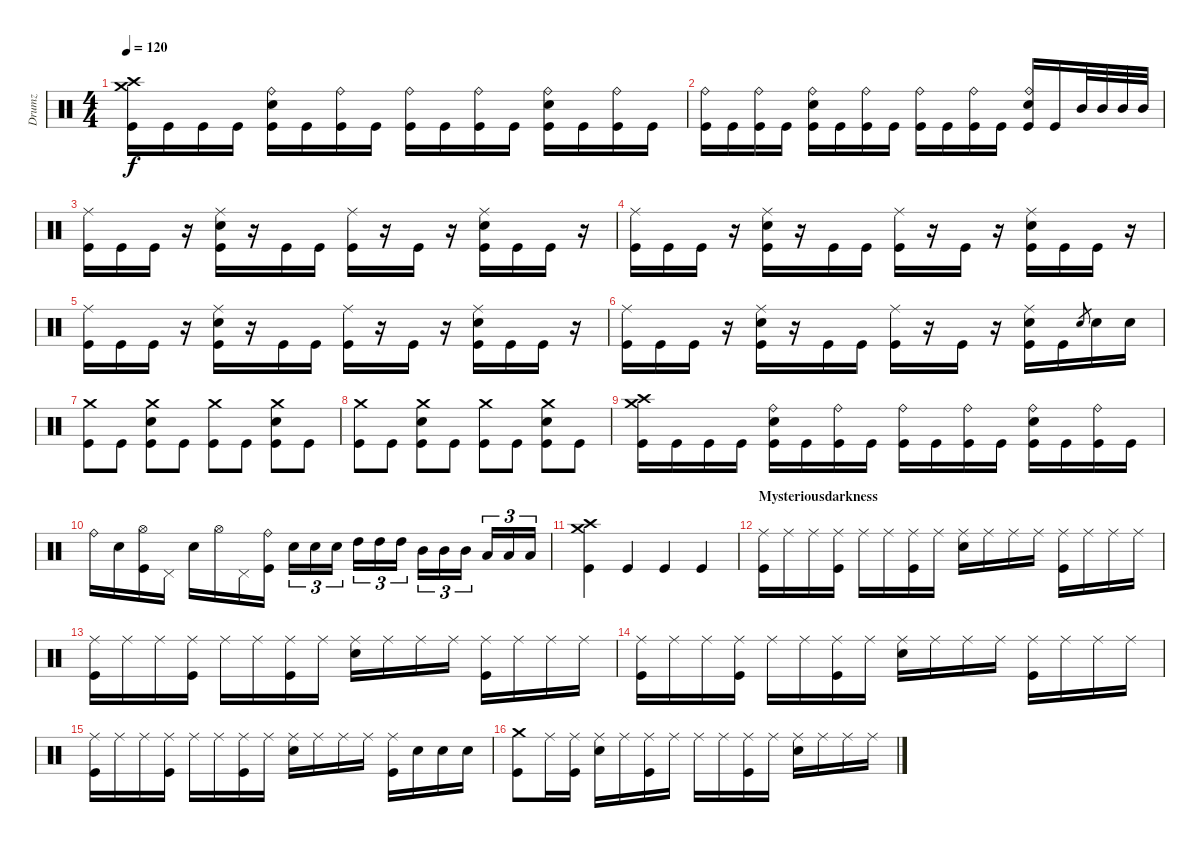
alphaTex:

\track ("Drumz" "Drumz") {instrument percussion}
\staff {score}
\articulation defaults
\ts (4 4)
\tempo 120
\clef neutral
\ks c
("Crash high (hit)" "Crash medium (hit)" "Kick (hit)").16{dy f} "Kick (hit)".16 "Kick (hit)".16 "Kick (hit)".16 ("Ride (bell)" "Electric Snare (hit)" "Kick (hit)").16 "Kick (hit)".16 ("Ride (bell)" "Kick (hit)").16 "Kick (hit)".16 ("Ride (bell)" "Kick (hit)").16 "Kick (hit)".16 ("Ride (bell)" "Kick (hit)").16 "Kick (hit)".16 ("Ride (bell)" "Electric Snare (hit)" "Kick (hit)").16 "Kick (hit)".16 ("Ride (bell)" "Kick (hit)").16 "Kick (hit)".16 |
("Ride (bell)" "Kick (hit)").16 "Kick (hit)".16 ("Ride (bell)" "Kick (hit)").16 "Kick (hit)".16 ("Ride (bell)" "Electric Snare (hit)" "Kick (hit)").16 "Kick (hit)".16 ("Ride (bell)" "Kick (hit)").16 "Kick (hit)".16 ("Ride (bell)" "Kick (hit)").16 "Kick (hit)".16 ("Ride (bell)" "Kick (hit)").16 "Kick (hit)".16 ("Ride (bell)" "Electric Snare (hit)" "Kick (hit)").16 "Kick (hit)".16 "Mid Tom (hit)".32 "Mid Tom (hit)".32 "Mid Tom (hit)".32 "Mid Tom (hit)".32 |
("Ride (middle)" "Kick (hit)").16 "Kick (hit)".16 "Kick (hit)".16 r.16 ("Ride (middle)" "Electric Snare (hit)" "Kick (hit)").16 r.16 "Kick (hit)".16 "Kick (hit)".16 ("Ride (middle)" "Kick (hit)").16 r.16 "Kick (hit)".16 r.16 ("Ride (middle)" "Electric Snare (hit)" "Kick (hit)").16 "Kick (hit)".16 "Kick (hit)".16 r.16 |
("Ride (middle)" "Kick (hit)").16 "Kick (hit)".16 "Kick (hit)".16 r.16 ("Ride (middle)" "Electric Snare (hit)" "Kick (hit)").16 r.16 "Kick (hit)".16 "Kick (hit)".16 ("Ride (middle)" "Kick (hit)").16 r.16 "Kick (hit)".16 r.16 ("Ride (middle)" "Electric Snare (hit)" "Kick (hit)").16 "Kick (hit)".16 "Kick (hit)".16 r.16 |
("Ride (middle)" "Kick (hit)").16 "Kick (hit)".16 "Kick (hit)".16 r.16 ("Ride (middle)" "Electric Snare (hit)" "Kick (hit)").16 r.16 "Kick (hit)".16 "Kick (hit)".16 ("Ride (middle)" "Kick (hit)").16 r.16 "Kick (hit)".16 r.16 ("Ride (middle)" "Electric Snare (hit)" "Kick (hit)").16 "Kick (hit)".16 "Kick (hit)".16 r.16 |
("Ride (middle)" "Kick (hit)").16 "Kick (hit)".16 "Kick (hit)".16 r.16 ("Ride (middle)" "Electric Snare (hit)" "Kick (hit)").16 r.16 "Kick (hit)".16 "Kick (hit)".16 ("Ride (middle)" "Kick (hit)").16 r.16 "Kick (hit)".16 r.16 ("Ride (middle)" "Electric Snare (hit)" "Kick (hit)").16 "Kick (hit)".16 "Electric Snare (hit)".8{gr} "Electric Snare (hit)".16 "Electric Snare (hit)".16 |
("Crash medium (hit)" "Kick (hit)").8 "Kick (hit)".8 ("Crash medium (hit)" "Electric Snare (hit)" "Kick (hit)").8 "Kick (hit)".8 ("Crash medium (hit)" "Kick (hit)").8 "Kick (hit)".8 ("Crash medium (hit)" "Electric Snare (hit)" "Kick (hit)").8 "Kick (hit)".8 |
("Crash medium (hit)" "Kick (hit)").8 "Kick (hit)".8 ("Crash medium (hit)" "Electric Snare (hit)" "Kick (hit)").8 "Kick (hit)".8 ("Crash medium (hit)" "Kick (hit)").8 "Kick (hit)".8 ("Crash medium (hit)" "Electric Snare (hit)" "Kick (hit)").8 "Kick (hit)".8 |
("Crash high (hit)" "Crash medium (hit)" "Kick (hit)").16 "Kick (hit)".16 "Kick (hit)".16 "Kick (hit)".16 ("Ride (bell)" "Electric Snare (hit)" "Kick (hit)").16 "Kick (hit)".16 ("Ride (bell)" "Kick (hit)").16 "Kick (hit)".16 ("Ride (bell)" "Kick (hit)").16 "Kick (hit)".16 ("Ride (bell)" "Kick (hit)").16 "Kick (hit)".16 ("Ride (bell)" "Electric Snare (hit)" "Kick (hit)").16 "Kick (hit)".16 ("Ride (bell)" "Kick (hit)").16 "Kick (hit)".16 |
"Ride (bell)".16 "Electric Snare (hit)".16 ("Hi-Hat (open)" "Kick (hit)").16 "Pedal Hi-Hat (hit)".16 "Electric Snare (hit)".16 "Hi-Hat (open)".16 "Pedal Hi-Hat (hit)".16 ("Ride (bell)" "Kick (hit)").16 "Electric Snare (hit)".16{tu (3 2)} "Electric Snare (hit)".16{tu (3 2)} "Electric Snare (hit)".16{tu (3 2)} "High Tom (hit)".16{tu (3 2)} "High Tom (hit)".16{tu (3 2)} "High Tom (hit)".16{tu (3 2)} "Mid Tom (hit)".16{tu (3 2)} "Mid Tom (hit)".16{tu (3 2)} "Mid Tom (hit)".16{tu (3 2)} "Low Tom (hit)".16{tu (3 2)} "Low Tom (hit)".16{tu (3 2)} "Low Tom (hit)".16{tu (3 2)} |
("Crash high (hit)" "Crash medium (hit)" "Kick (hit)").4 "Kick (hit)".4 "Kick (hit)".4 "Kick (hit)".4 |
\section ("" "Mysteriousdarkness")
("Ride (middle)" "Kick (hit)").16 "Ride (middle)".16 "Ride (middle)".16 ("Ride (middle)" "Kick (hit)").16 "Ride (middle)".16 "Ride (middle)".16 ("Ride (middle)" "Kick (hit)").16 "Ride (middle)".16 ("Ride (middle)" "Electric Snare (hit)").16 "Ride (middle)".16 "Ride (middle)".16 "Ride (middle)".16 ("Ride (middle)" "Kick (hit)").16 "Ride (middle)".16 "Ride (middle)".16 "Ride (middle)".16 |
("Ride (middle)" "Kick (hit)").16 "Ride (middle)".16 "Ride (middle)".16 ("Ride (middle)" "Kick (hit)").16 "Ride (middle)".16 "Ride (middle)".16 ("Ride (middle)" "Kick (hit)").16 "Ride (middle)".16 ("Ride (middle)" "Electric Snare (hit)").16 "Ride (middle)".16 "Ride (middle)".16 "Ride (middle)".16 ("Ride (middle)" "Kick (hit)").16 "Ride (middle)".16 "Ride (middle)".16 "Ride (middle)".16 |
("Ride (middle)" "Kick (hit)").16 "Ride (middle)".16 "Ride (middle)".16 ("Ride (middle)" "Kick (hit)").16 "Ride (middle)".16 "Ride (middle)".16 ("Ride (middle)" "Kick (hit)").16 "Ride (middle)".16 ("Ride (middle)" "Electric Snare (hit)").16 "Ride (middle)".16 "Ride (middle)".16 "Ride (middle)".16 ("Ride (middle)" "Kick (hit)").16 "Ride (middle)".16 "Ride (middle)".16 "Ride (middle)".16 |
("Ride (middle)" "Kick (hit)").16 "Ride (middle)".16 "Ride (middle)".16 ("Ride (middle)" "Kick (hit)").16 "Ride (middle)".16 "Ride (middle)".16 ("Ride (middle)" "Kick (hit)").16 "Ride (middle)".16 ("Ride (middle)" "Electric Snare (hit)").16 "Ride (middle)".16 "Ride (middle)".16 "Ride (middle)".16 ("Ride (middle)" "Kick (hit)").16 "Electric Snare (hit)".16 "Electric Snare (hit)".16 "Electric Snare (hit)".16 |
("Crash medium (hit)" "Kick (hit)").8 "Ride (middle)".16 ("Ride (middle)" "Kick (hit)").16 ("Ride (middle)" "Electric Snare (hit)").16 "Ride (middle)".16 ("Ride (middle)" "Kick (hit)").16 "Ride (middle)".16 "Ride (middle)".16 "Ride (middle)".16 ("Ride (middle)" "Kick (hit)").16 "Ride (middle)".16 ("Ride (middle)" "Electric Snare (hit)").16 "Ride (middle)".16 "Ride (middle)".16 "Ride (middle)".16
